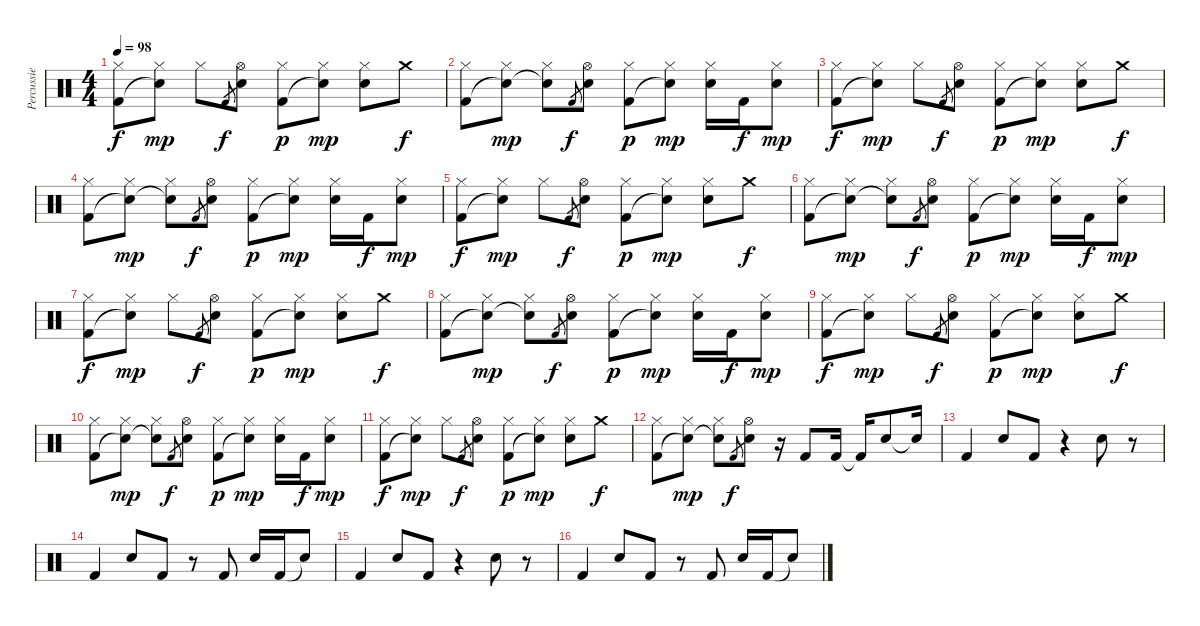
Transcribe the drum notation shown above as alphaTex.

\track ("Percussie" "Percussie") {instrument percussion}
\staff {score}
\articulation defaults
\ts (4 4)
\tempo 98
\clef neutral
\ks c
("Hi-Hat (closed)" "Kick (hit) 2").8{dy f} ("Hi-Hat (closed)" "Snare (hit)"{t}).8{dy mp} "Hi-Hat (closed)".8 "Kick (hit) 2".8{gr dy f} ("Hi-Hat (open)" "Electric Snare (hit)").8 ("Hi-Hat (closed)" "Kick (hit) 2").8{dy p} ("Hi-Hat (closed)" "Snare (hit)"{t}).8{dy mp} ("Hi-Hat (closed)" "Electric Snare (hit)").8 "Crash medium (hit)".8{dy f} |
("Hi-Hat (closed)" "Kick (hit) 2").8 ("Hi-Hat (closed)" "Snare (hit)"{t}).8{dy mp} ("Hi-Hat (closed)" "Snare (hit)"{t}).8 "Kick (hit) 2".8{gr dy f} ("Hi-Hat (open)" "Electric Snare (hit)").8 ("Hi-Hat (closed)" "Kick (hit) 2").8{dy p} ("Hi-Hat (closed)" "Snare (hit)"{t}).8{dy mp} ("Hi-Hat (closed)" "Electric Snare (hit)").16 "Kick (hit) 2".16{dy f} ("Hi-Hat (closed)" "Electric Snare (hit)").8{dy mp} |
("Hi-Hat (closed)" "Kick (hit) 2").8{dy f} ("Hi-Hat (closed)" "Snare (hit)"{t}).8{dy mp} "Hi-Hat (closed)".8 "Kick (hit) 2".8{gr dy f} ("Hi-Hat (open)" "Electric Snare (hit)").8 ("Hi-Hat (closed)" "Kick (hit) 2").8{dy p} ("Hi-Hat (closed)" "Snare (hit)"{t}).8{dy mp} ("Hi-Hat (closed)" "Electric Snare (hit)").8 "Crash medium (hit)".8{dy f} |
("Hi-Hat (closed)" "Kick (hit) 2").8 ("Hi-Hat (closed)" "Snare (hit)"{t}).8{dy mp} ("Hi-Hat (closed)" "Snare (hit)"{t}).8 "Kick (hit) 2".8{gr dy f} ("Hi-Hat (open)" "Electric Snare (hit)").8 ("Hi-Hat (closed)" "Kick (hit) 2").8{dy p} ("Hi-Hat (closed)" "Snare (hit)"{t}).8{dy mp} ("Hi-Hat (closed)" "Electric Snare (hit)").16 "Kick (hit) 2".16{dy f} ("Hi-Hat (closed)" "Electric Snare (hit)").8{dy mp} |
("Hi-Hat (closed)" "Kick (hit) 2").8{dy f} ("Hi-Hat (closed)" "Snare (hit)"{t}).8{dy mp} "Hi-Hat (closed)".8 "Kick (hit) 2".8{gr dy f} ("Hi-Hat (open)" "Electric Snare (hit)").8 ("Hi-Hat (closed)" "Kick (hit) 2").8{dy p} ("Hi-Hat (closed)" "Snare (hit)"{t}).8{dy mp} ("Hi-Hat (closed)" "Electric Snare (hit)").8 "Crash medium (hit)".8{dy f} |
("Hi-Hat (closed)" "Kick (hit) 2").8 ("Hi-Hat (closed)" "Snare (hit)"{t}).8{dy mp} ("Hi-Hat (closed)" "Snare (hit)"{t}).8 "Kick (hit) 2".8{gr dy f} ("Hi-Hat (open)" "Electric Snare (hit)").8 ("Hi-Hat (closed)" "Kick (hit) 2").8{dy p} ("Hi-Hat (closed)" "Snare (hit)"{t}).8{dy mp} ("Hi-Hat (closed)" "Electric Snare (hit)").16 "Kick (hit) 2".16{dy f} ("Hi-Hat (closed)" "Electric Snare (hit)").8{dy mp} |
("Hi-Hat (closed)" "Kick (hit) 2").8{dy f} ("Hi-Hat (closed)" "Snare (hit)"{t}).8{dy mp} "Hi-Hat (closed)".8 "Kick (hit) 2".8{gr dy f} ("Hi-Hat (open)" "Electric Snare (hit)").8 ("Hi-Hat (closed)" "Kick (hit) 2").8{dy p} ("Hi-Hat (closed)" "Snare (hit)"{t}).8{dy mp} ("Hi-Hat (closed)" "Electric Snare (hit)").8 "Crash medium (hit)".8{dy f} |
("Hi-Hat (closed)" "Kick (hit) 2").8 ("Hi-Hat (closed)" "Snare (hit)"{t}).8{dy mp} ("Hi-Hat (closed)" "Snare (hit)"{t}).8 "Kick (hit) 2".8{gr dy f} ("Hi-Hat (open)" "Electric Snare (hit)").8 ("Hi-Hat (closed)" "Kick (hit) 2").8{dy p} ("Hi-Hat (closed)" "Snare (hit)"{t}).8{dy mp} ("Hi-Hat (closed)" "Electric Snare (hit)").16 "Kick (hit) 2".16{dy f} ("Hi-Hat (closed)" "Electric Snare (hit)").8{dy mp} |
("Hi-Hat (closed)" "Kick (hit) 2").8{dy f} ("Hi-Hat (closed)" "Snare (hit)"{t}).8{dy mp} "Hi-Hat (closed)".8 "Kick (hit) 2".8{gr dy f} ("Hi-Hat (open)" "Electric Snare (hit)").8 ("Hi-Hat (closed)" "Kick (hit) 2").8{dy p} ("Hi-Hat (closed)" "Snare (hit)"{t}).8{dy mp} ("Hi-Hat (closed)" "Electric Snare (hit)").8 "Crash medium (hit)".8{dy f} |
("Hi-Hat (closed)" "Kick (hit) 2").8 ("Hi-Hat (closed)" "Snare (hit)"{t}).8{dy mp} ("Hi-Hat (closed)" "Snare (hit)"{t}).8 "Kick (hit) 2".8{gr dy f} ("Hi-Hat (open)" "Electric Snare (hit)").8 ("Hi-Hat (closed)" "Kick (hit) 2").8{dy p} ("Hi-Hat (closed)" "Snare (hit)"{t}).8{dy mp} ("Hi-Hat (closed)" "Electric Snare (hit)").16 "Kick (hit) 2".16{dy f} ("Hi-Hat (closed)" "Electric Snare (hit)").8{dy mp} |
("Hi-Hat (closed)" "Kick (hit) 2").8{dy f} ("Hi-Hat (closed)" "Snare (hit)"{t}).8{dy mp} "Hi-Hat (closed)".8 "Kick (hit) 2".8{gr dy f} ("Hi-Hat (open)" "Electric Snare (hit)").8 ("Hi-Hat (closed)" "Kick (hit) 2").8{dy p} ("Hi-Hat (closed)" "Snare (hit)"{t}).8{dy mp} ("Hi-Hat (closed)" "Electric Snare (hit)").8 "Crash medium (hit)".8{dy f} |
("Hi-Hat (closed)" "Kick (hit) 2").8 ("Hi-Hat (closed)" "Snare (hit)"{t}).8{dy mp} ("Hi-Hat (closed)" "Snare (hit)"{t}).8 "Kick (hit) 2".8{gr dy f} ("Hi-Hat (open)" "Electric Snare (hit)").8 r.16 "Kick (hit) 2".8 "Kick (hit) 2".16 "Kick (hit) 2"{t}.16 "Electric Snare (hit)".8 "Snare (hit)"{t}.16 |
"Kick (hit) 2".4 "Electric Snare (hit)".8 "Kick (hit) 2".8 r.4 "Electric Snare (hit)".8 r.8 |
"Kick (hit) 2".4 "Electric Snare (hit)".8 "Kick (hit) 2".8 r.8 "Kick (hit) 2".8 "Electric Snare (hit)".16 "Kick (hit) 2".16 "Snare (hit)"{t}.8 |
"Kick (hit) 2".4 "Electric Snare (hit)".8 "Kick (hit) 2".8 r.4 "Electric Snare (hit)".8 r.8 |
"Kick (hit) 2".4 "Electric Snare (hit)".8 "Kick (hit) 2".8 r.8 "Kick (hit) 2".8 "Electric Snare (hit)".16 "Kick (hit) 2".16 "Snare (hit)"{t}.8
